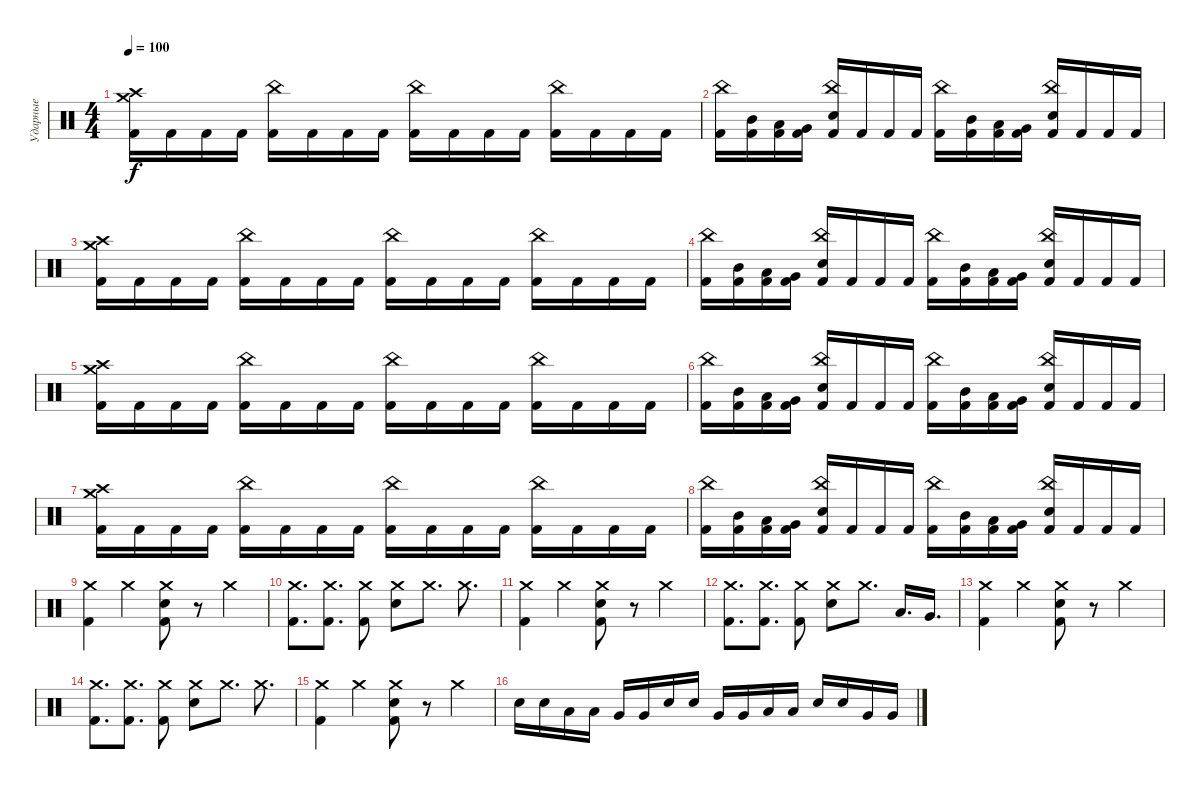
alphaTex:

\track ("Ударные" "Ударные") {instrument percussion}
\staff {score}
\articulation defaults
\ts (4 4)
\tempo 100
\clef neutral
\ks c
("Crash medium (hit)" "Crash high (hit)" "Kick (hit) 2").16{dy f} "Kick (hit) 2".16 "Kick (hit) 2".16 "Kick (hit) 2".16 ("China (hit)" "Kick (hit) 2").16 "Kick (hit) 2".16 "Kick (hit) 2".16 "Kick (hit) 2".16 ("China (hit)" "Kick (hit) 2").16 "Kick (hit) 2".16 "Kick (hit) 2".16 "Kick (hit) 2".16 ("China (hit)" "Kick (hit) 2").16 "Kick (hit) 2".16 "Kick (hit) 2".16 "Kick (hit) 2".16 |
("China (hit)" "Kick (hit) 2").16 ("Mid Tom (hit)" "Kick (hit) 2").16 ("Low Tom (hit)" "Kick (hit) 2").16 ("Very Low Tom (hit)" "Kick (hit) 2").16 ("China (hit)" "Electric Snare (hit)" "Kick (hit) 2").16 "Kick (hit) 2".16 "Kick (hit) 2".16 "Kick (hit) 2".16 ("China (hit)" "Kick (hit) 2").16 ("Mid Tom (hit)" "Kick (hit) 2").16 ("Low Tom (hit)" "Kick (hit) 2").16 ("Very Low Tom (hit)" "Kick (hit) 2").16 ("China (hit)" "Electric Snare (hit)" "Kick (hit) 2").16 "Kick (hit) 2".16 "Kick (hit) 2".16 "Kick (hit) 2".16 |
("Crash medium (hit)" "Crash high (hit)" "Kick (hit) 2").16 "Kick (hit) 2".16 "Kick (hit) 2".16 "Kick (hit) 2".16 ("China (hit)" "Kick (hit) 2").16 "Kick (hit) 2".16 "Kick (hit) 2".16 "Kick (hit) 2".16 ("China (hit)" "Kick (hit) 2").16 "Kick (hit) 2".16 "Kick (hit) 2".16 "Kick (hit) 2".16 ("China (hit)" "Kick (hit) 2").16 "Kick (hit) 2".16 "Kick (hit) 2".16 "Kick (hit) 2".16 |
("China (hit)" "Kick (hit) 2").16 ("Mid Tom (hit)" "Kick (hit) 2").16 ("Low Tom (hit)" "Kick (hit) 2").16 ("Very Low Tom (hit)" "Kick (hit) 2").16 ("China (hit)" "Electric Snare (hit)" "Kick (hit) 2").16 "Kick (hit) 2".16 "Kick (hit) 2".16 "Kick (hit) 2".16 ("China (hit)" "Kick (hit) 2").16 ("Mid Tom (hit)" "Kick (hit) 2").16 ("Low Tom (hit)" "Kick (hit) 2").16 ("Very Low Tom (hit)" "Kick (hit) 2").16 ("China (hit)" "Electric Snare (hit)" "Kick (hit) 2").16 "Kick (hit) 2".16 "Kick (hit) 2".16 "Kick (hit) 2".16 |
("Crash medium (hit)" "Crash high (hit)" "Kick (hit) 2").16 "Kick (hit) 2".16 "Kick (hit) 2".16 "Kick (hit) 2".16 ("China (hit)" "Kick (hit) 2").16 "Kick (hit) 2".16 "Kick (hit) 2".16 "Kick (hit) 2".16 ("China (hit)" "Kick (hit) 2").16 "Kick (hit) 2".16 "Kick (hit) 2".16 "Kick (hit) 2".16 ("China (hit)" "Kick (hit) 2").16 "Kick (hit) 2".16 "Kick (hit) 2".16 "Kick (hit) 2".16 |
("China (hit)" "Kick (hit) 2").16 ("Mid Tom (hit)" "Kick (hit) 2").16 ("Low Tom (hit)" "Kick (hit) 2").16 ("Very Low Tom (hit)" "Kick (hit) 2").16 ("China (hit)" "Electric Snare (hit)" "Kick (hit) 2").16 "Kick (hit) 2".16 "Kick (hit) 2".16 "Kick (hit) 2".16 ("China (hit)" "Kick (hit) 2").16 ("Mid Tom (hit)" "Kick (hit) 2").16 ("Low Tom (hit)" "Kick (hit) 2").16 ("Very Low Tom (hit)" "Kick (hit) 2").16 ("China (hit)" "Electric Snare (hit)" "Kick (hit) 2").16 "Kick (hit) 2".16 "Kick (hit) 2".16 "Kick (hit) 2".16 |
("Crash medium (hit)" "Crash high (hit)" "Kick (hit) 2").16 "Kick (hit) 2".16 "Kick (hit) 2".16 "Kick (hit) 2".16 ("China (hit)" "Kick (hit) 2").16 "Kick (hit) 2".16 "Kick (hit) 2".16 "Kick (hit) 2".16 ("China (hit)" "Kick (hit) 2").16 "Kick (hit) 2".16 "Kick (hit) 2".16 "Kick (hit) 2".16 ("China (hit)" "Kick (hit) 2").16 "Kick (hit) 2".16 "Kick (hit) 2".16 "Kick (hit) 2".16 |
("China (hit)" "Kick (hit) 2").16 ("Mid Tom (hit)" "Kick (hit) 2").16 ("Low Tom (hit)" "Kick (hit) 2").16 ("Very Low Tom (hit)" "Kick (hit) 2").16 ("China (hit)" "Electric Snare (hit)" "Kick (hit) 2").16 "Kick (hit) 2".16 "Kick (hit) 2".16 "Kick (hit) 2".16 ("China (hit)" "Kick (hit) 2").16 ("Mid Tom (hit)" "Kick (hit) 2").16 ("Low Tom (hit)" "Kick (hit) 2").16 ("Very Low Tom (hit)" "Kick (hit) 2").16 ("China (hit)" "Electric Snare (hit)" "Kick (hit) 2").16 "Kick (hit) 2".16 "Kick (hit) 2".16 "Kick (hit) 2".16 |
("Crash medium (hit)" "Kick (hit) 2").4 "Crash medium (hit)".4 ("Crash medium (hit)" "Snare (hit) 2" "Kick (hit) 2").8 r.8 "Crash medium (hit)".4 |
("Crash medium (hit)" "Kick (hit) 2").8{d} ("Crash medium (hit)" "Kick (hit) 2").8{d} ("Crash medium (hit)" "Kick (hit) 2").8 ("Crash medium (hit)" "Snare (hit) 2").8 "Crash medium (hit)".8{d} "Crash medium (hit)".8{d} |
("Crash medium (hit)" "Kick (hit) 2").4 "Crash medium (hit)".4 ("Crash medium (hit)" "Snare (hit) 2" "Kick (hit) 2").8 r.8 "Crash medium (hit)".4 |
("Crash medium (hit)" "Kick (hit) 2").8{d} ("Crash medium (hit)" "Kick (hit) 2").8{d} ("Crash medium (hit)" "Kick (hit) 2").8 ("Crash medium (hit)" "Snare (hit) 2").8 "Crash medium (hit)".8{d} "Low Floor Tom (hit)".16{d} "Very Low Tom (hit)".16{d} |
("Crash medium (hit)" "Kick (hit) 2").4 "Crash medium (hit)".4 ("Crash medium (hit)" "Snare (hit) 2" "Kick (hit) 2").8 r.8 "Crash medium (hit)".4 |
("Crash medium (hit)" "Kick (hit) 2").8{d} ("Crash medium (hit)" "Kick (hit) 2").8{d} ("Crash medium (hit)" "Kick (hit) 2").8 ("Crash medium (hit)" "Snare (hit) 2").8 "Crash medium (hit)".8{d} "Crash medium (hit)".8{d} |
("Crash medium (hit)" "Kick (hit) 2").4 "Crash medium (hit)".4 ("Crash medium (hit)" "Snare (hit) 2" "Kick (hit) 2").8 r.8 "Crash medium (hit)".4 |
"Electric Snare (hit)".16 "Electric Snare (hit)".16 "Low Tom (hit)".16 "Low Tom (hit)".16 "Very Low Tom (hit)".16 "Very Low Tom (hit)".16 "Electric Snare (hit)".16 "Electric Snare (hit)".16 "Very Low Tom (hit)".16 "Very Low Tom (hit)".16 "Low Floor Tom (hit)".16 "Low Floor Tom (hit)".16 "Electric Snare (hit)".16 "Electric Snare (hit)".16 "Very Low Tom (hit)".16 "Very Low Tom (hit)".16
